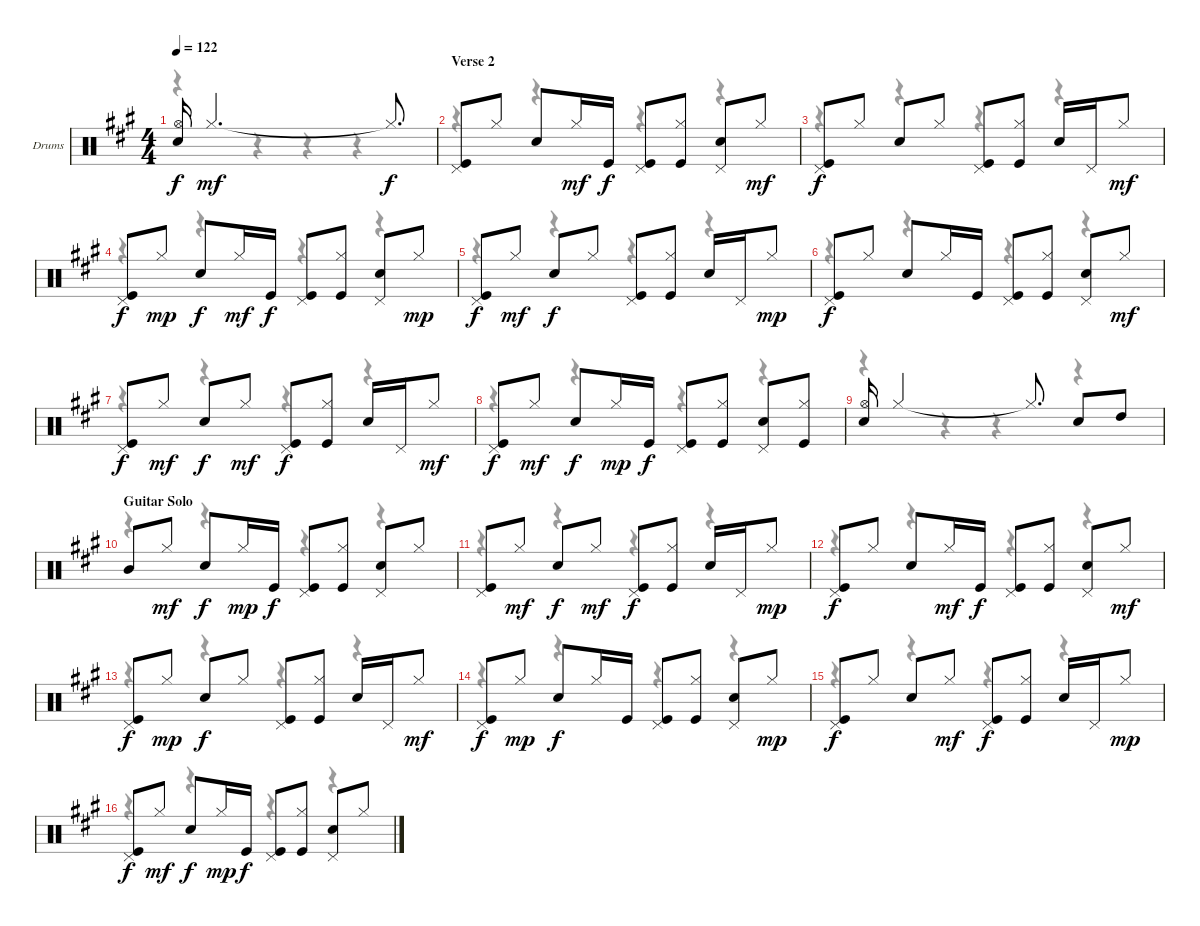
\bracketExtendMode groupsimilarinstruments
\firstSystemTrackNameOrientation horizontal
\otherSystemsTrackNameOrientation horizontal
\track ("Chris Layton - Drums" "Drums") {instrument percussion}
\staff {score}
\articulation defaults
\voice
\ts (4 4)
\tempo 122
\clef neutral
\ks a
("Snare (hit) 2" "Hi-Hat (open)").16{dy f} "Hi-Hat (closed)".2{d dy mf} "Hi-Hat (closed)"{t}.8{d dy f} |
\section ("" "Verse 2")
("Kick (hit)" "Pedal Hi-Hat (hit)").8 "Hi-Hat (closed)".8 "Snare (hit) 2".8 "Hi-Hat (closed)".16{dy mf} "Kick (hit)".16{dy f} ("Kick (hit)" "Pedal Hi-Hat (hit)").8 ("Kick (hit)" "Hi-Hat (closed)").8 ("Snare (hit) 2" "Pedal Hi-Hat (hit)").8 "Hi-Hat (closed)".8{dy mf} |
("Kick (hit)" "Pedal Hi-Hat (hit)").8{dy f} "Hi-Hat (closed)".8 "Snare (hit) 2".8 "Hi-Hat (closed)".8 ("Kick (hit)" "Pedal Hi-Hat (hit)").8 ("Kick (hit)" "Hi-Hat (closed)").8 "Snare (hit) 2".16 "Pedal Hi-Hat (hit)".16 "Hi-Hat (closed)".8{dy mf} |
("Kick (hit)" "Pedal Hi-Hat (hit)").8{dy f} "Hi-Hat (closed)".8{dy mp} "Snare (hit) 2".8{dy f} "Hi-Hat (closed)".16{dy mf} "Kick (hit)".16{dy f} ("Kick (hit)" "Pedal Hi-Hat (hit)").8 ("Kick (hit)" "Hi-Hat (closed)").8 ("Snare (hit) 2" "Pedal Hi-Hat (hit)").8 "Hi-Hat (closed)".8{dy mp} |
("Kick (hit)" "Pedal Hi-Hat (hit)").8{dy f} "Hi-Hat (closed)".8{dy mf} "Snare (hit) 2".8{dy f} "Hi-Hat (closed)".8 ("Kick (hit)" "Pedal Hi-Hat (hit)").8 ("Kick (hit)" "Hi-Hat (closed)").8 "Snare (hit) 2".16 "Pedal Hi-Hat (hit)".16 "Hi-Hat (closed)".8{dy mp} |
("Kick (hit)" "Pedal Hi-Hat (hit)").8{dy f} "Hi-Hat (closed)".8 "Snare (hit) 2".8 "Hi-Hat (closed)".16 "Kick (hit)".16 ("Kick (hit)" "Pedal Hi-Hat (hit)").8 ("Kick (hit)" "Hi-Hat (closed)").8 ("Snare (hit) 2" "Pedal Hi-Hat (hit)").8 "Hi-Hat (closed)".8{dy mf} |
("Kick (hit)" "Pedal Hi-Hat (hit)").8{dy f} "Hi-Hat (closed)".8{dy mf} "Snare (hit) 2".8{dy f} "Hi-Hat (closed)".8{dy mf} ("Kick (hit)" "Pedal Hi-Hat (hit)").8{dy f} ("Kick (hit)" "Hi-Hat (closed)").8 "Snare (hit) 2".16 "Pedal Hi-Hat (hit)".16 "Hi-Hat (closed)".8{dy mf} |
("Kick (hit)" "Pedal Hi-Hat (hit)").8{dy f} "Hi-Hat (closed)".8{dy mf} "Snare (hit) 2".8{dy f} "Hi-Hat (closed)".16{dy mp} "Kick (hit)".16{dy f} ("Kick (hit)" "Pedal Hi-Hat (hit)").8 ("Kick (hit)" "Hi-Hat (closed)").8 ("Snare (hit) 2" "Pedal Hi-Hat (hit)").8 ("Kick (hit)" "Hi-Hat (closed)").8 |
("Snare (hit) 2" "Hi-Hat (open)").16 "Hi-Hat (closed)".2 "Hi-Hat (closed)"{t}.8{d} "Snare (hit) 2".8 "High Tom (hit)".8 |
\section ("" "Guitar Solo")
"Mid Tom (hit)".8 "Hi-Hat (closed)".8{dy mf} "Snare (hit) 2".8{dy f} "Hi-Hat (closed)".16{dy mp} "Kick (hit)".16{dy f} ("Kick (hit)" "Pedal Hi-Hat (hit)").8 ("Kick (hit)" "Hi-Hat (closed)").8 ("Snare (hit) 2" "Pedal Hi-Hat (hit)").8 "Hi-Hat (closed)".8 |
("Kick (hit)" "Pedal Hi-Hat (hit)").8 "Hi-Hat (closed)".8{dy mf} "Snare (hit) 2".8{dy f} "Hi-Hat (closed)".8{dy mf} ("Kick (hit)" "Pedal Hi-Hat (hit)").8{dy f} ("Kick (hit)" "Hi-Hat (closed)").8 "Snare (hit) 2".16 "Pedal Hi-Hat (hit)".16 "Hi-Hat (closed)".8{dy mp} |
("Kick (hit)" "Pedal Hi-Hat (hit)").8{dy f} "Hi-Hat (closed)".8 "Snare (hit) 2".8 "Hi-Hat (closed)".16{dy mf} "Kick (hit)".16{dy f} ("Kick (hit)" "Pedal Hi-Hat (hit)").8 ("Kick (hit)" "Hi-Hat (closed)").8 ("Snare (hit) 2" "Pedal Hi-Hat (hit)").8 "Hi-Hat (closed)".8{dy mf} |
("Kick (hit)" "Pedal Hi-Hat (hit)").8{dy f} "Hi-Hat (closed)".8{dy mp} "Snare (hit) 2".8{dy f} "Hi-Hat (closed)".8 ("Kick (hit)" "Pedal Hi-Hat (hit)").8 ("Kick (hit)" "Hi-Hat (closed)").8 "Snare (hit) 2".16 "Pedal Hi-Hat (hit)".16 "Hi-Hat (closed)".8{dy mf} |
("Kick (hit)" "Pedal Hi-Hat (hit)").8{dy f} "Hi-Hat (closed)".8{dy mp} "Snare (hit) 2".8{dy f} "Hi-Hat (closed)".16 "Kick (hit)".16 ("Kick (hit)" "Pedal Hi-Hat (hit)").8 ("Kick (hit)" "Hi-Hat (closed)").8 ("Snare (hit) 2" "Pedal Hi-Hat (hit)").8 "Hi-Hat (closed)".8{dy mp} |
("Kick (hit)" "Pedal Hi-Hat (hit)").8{dy f} "Hi-Hat (closed)".8 "Snare (hit) 2".8 "Hi-Hat (closed)".8{dy mf} ("Kick (hit)" "Pedal Hi-Hat (hit)").8{dy f} ("Kick (hit)" "Hi-Hat (closed)").8 "Snare (hit) 2".16 "Pedal Hi-Hat (hit)".16 "Hi-Hat (closed)".8{dy mp} |
("Kick (hit)" "Pedal Hi-Hat (hit)").8{dy f} "Hi-Hat (closed)".8{dy mf} "Snare (hit) 2".8{dy f} "Hi-Hat (closed)".16{dy mp} "Kick (hit)".16{dy f} ("Kick (hit)" "Pedal Hi-Hat (hit)").8 ("Kick (hit)" "Hi-Hat (closed)").8 ("Snare (hit) 2" "Pedal Hi-Hat (hit)").8 "Hi-Hat (closed)".8
\voice
\clef neutral
\ottava regular
\simile none
\ks a
r.4{dy mf} r.4 r.4 r.4 |
r.4 r.4 r.4 r.4 |
r.4 r.4 r.4 r.4 |
r.4 r.4 r.4 r.4 |
r.4 r.4 r.4 r.4 |
r.4 r.4 r.4 r.4 |
r.4 r.4 r.4 r.4 |
r.4 r.4 r.4 r.4 |
r.4 r.4 r.4 r.4 |
r.4 r.4 r.4 r.4 |
r.4 r.4 r.4 r.4 |
r.4 r.4 r.4 r.4 |
r.4 r.4 r.4 r.4 |
r.4 r.4 r.4 r.4 |
r.4 r.4 r.4 r.4 |
r.4 r.4 r.4 r.4
